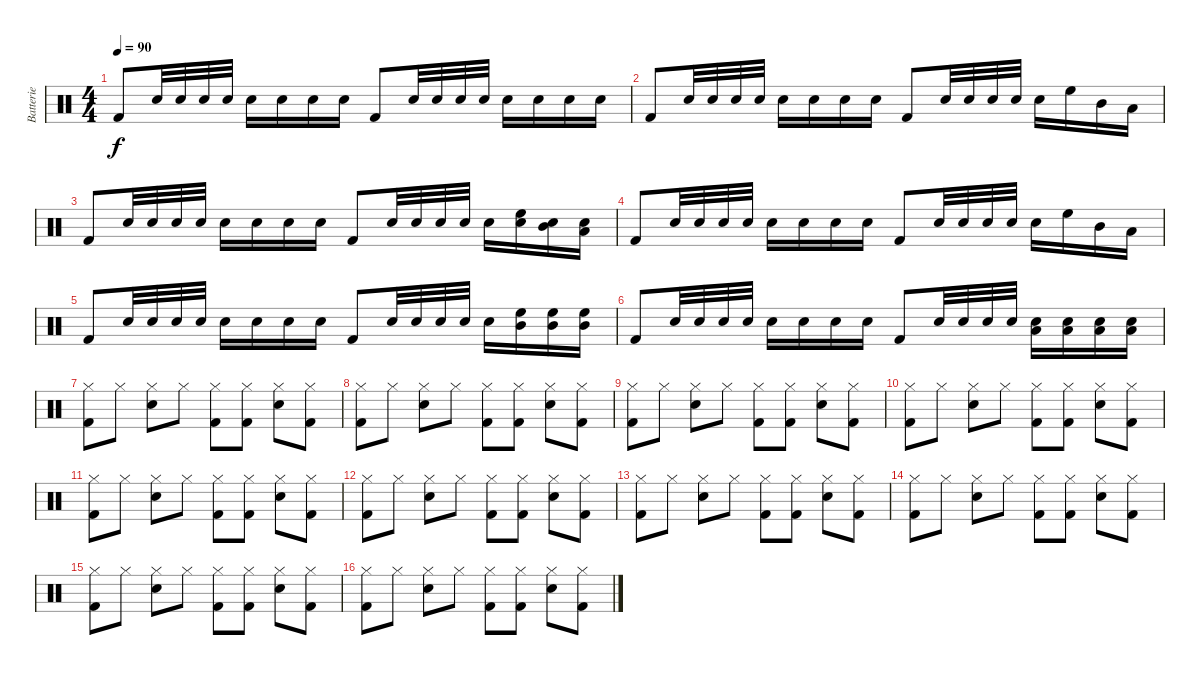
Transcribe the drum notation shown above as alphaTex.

\track ("Batterie" "Batterie") {instrument percussion}
\staff {score}
\articulation defaults
\ts (4 4)
\tempo 90
\clef neutral
\ks c "Kick (hit) 2".8{dy f} "Electric Snare (hit)".32 "Electric Snare (hit)".32 "Electric Snare (hit)".32 "Electric Snare (hit)".32 "Electric Snare (hit)".16 "Electric Snare (hit)".16 "Electric Snare (hit)".16 "Electric Snare (hit)".16 "Kick (hit) 2".8 "Electric Snare (hit)".32 "Electric Snare (hit)".32 "Electric Snare (hit)".32 "Electric Snare (hit)".32 "Electric Snare (hit)".16 "Electric Snare (hit)".16 "Electric Snare (hit)".16 "Electric Snare (hit)".16
|
"Kick (hit) 2".8 "Electric Snare (hit)".32 "Electric Snare (hit)".32 "Electric Snare (hit)".32 "Electric Snare (hit)".32 "Electric Snare (hit)".16 "Electric Snare (hit)".16 "Electric Snare (hit)".16 "Electric Snare (hit)".16 "Kick (hit) 2".8 "Electric Snare (hit)".32 "Electric Snare (hit)".32 "Electric Snare (hit)".32 "Electric Snare (hit)".32 "Electric Snare (hit)".16 "High Floor Tom (hit)".16 "Mid Tom (hit)".16 "Low Floor Tom (hit)".16 |
"Kick (hit) 2".8 "Electric Snare (hit)".32 "Electric Snare (hit)".32 "Electric Snare (hit)".32 "Electric Snare (hit)".32 "Electric Snare (hit)".16 "Electric Snare (hit)".16 "Electric Snare (hit)".16 "Electric Snare (hit)".16 "Kick (hit) 2".8 "Electric Snare (hit)".32 "Electric Snare (hit)".32 "Electric Snare (hit)".32 "Electric Snare (hit)".32 "Electric Snare (hit)".16 ("Electric Snare (hit)" "High Floor Tom (hit)").16 ("Electric Snare (hit)" "Mid Tom (hit)").16 ("Electric Snare (hit)" "Low Floor Tom (hit)").16 |
"Kick (hit) 2".8 "Electric Snare (hit)".32 "Electric Snare (hit)".32 "Electric Snare (hit)".32 "Electric Snare (hit)".32 "Electric Snare (hit)".16 "Electric Snare (hit)".16 "Electric Snare (hit)".16 "Electric Snare (hit)".16 "Kick (hit) 2".8 "Electric Snare (hit)".32 "Electric Snare (hit)".32 "Electric Snare (hit)".32 "Electric Snare (hit)".32 "Electric Snare (hit)".16 "High Floor Tom (hit)".16 "Mid Tom (hit)".16 "Low Floor Tom (hit)".16 |
"Kick (hit) 2".8 "Electric Snare (hit)".32 "Electric Snare (hit)".32 "Electric Snare (hit)".32 "Electric Snare (hit)".32 "Electric Snare (hit)".16 "Electric Snare (hit)".16 "Electric Snare (hit)".16 "Electric Snare (hit)".16 "Kick (hit) 2".8 "Electric Snare (hit)".32 "Electric Snare (hit)".32 "Electric Snare (hit)".32 "Electric Snare (hit)".32 "Electric Snare (hit)".16 ("Mid Tom (hit)" "High Floor Tom (hit)").16 ("Mid Tom (hit)" "High Floor Tom (hit)").16 ("Mid Tom (hit)" "High Floor Tom (hit)").16 |
"Kick (hit) 2".8 "Electric Snare (hit)".32 "Electric Snare (hit)".32 "Electric Snare (hit)".32 "Electric Snare (hit)".32 "Electric Snare (hit)".16 "Electric Snare (hit)".16 "Electric Snare (hit)".16 "Electric Snare (hit)".16 "Kick (hit) 2".8 "Electric Snare (hit)".32 "Electric Snare (hit)".32 "Electric Snare (hit)".32 "Electric Snare (hit)".32 ("Low Floor Tom (hit)" "Electric Snare (hit)").16 ("Low Floor Tom (hit)" "Electric Snare (hit)").16 ("Low Floor Tom (hit)" "Electric Snare (hit)").16 ("Low Floor Tom (hit)" "Electric Snare (hit)").16 |
("Hi-Hat (closed)" "Kick (hit) 2").8 "Hi-Hat (closed)".8 ("Hi-Hat (closed)" "Electric Snare (hit)").8 "Hi-Hat (closed)".8 ("Hi-Hat (closed)" "Kick (hit) 2").8 ("Hi-Hat (closed)" "Kick (hit) 2").8 ("Hi-Hat (closed)" "Electric Snare (hit)").8 ("Hi-Hat (closed)" "Kick (hit) 2").8 |
("Hi-Hat (closed)" "Kick (hit) 2").8 "Hi-Hat (closed)".8 ("Hi-Hat (closed)" "Electric Snare (hit)").8 "Hi-Hat (closed)".8 ("Hi-Hat (closed)" "Kick (hit) 2").8 ("Hi-Hat (closed)" "Kick (hit) 2").8 ("Hi-Hat (closed)" "Electric Snare (hit)").8 ("Hi-Hat (closed)" "Kick (hit) 2").8 |
("Hi-Hat (closed)" "Kick (hit) 2").8 "Hi-Hat (closed)".8 ("Hi-Hat (closed)" "Electric Snare (hit)").8 "Hi-Hat (closed)".8 ("Hi-Hat (closed)" "Kick (hit) 2").8 ("Hi-Hat (closed)" "Kick (hit) 2").8 ("Hi-Hat (closed)" "Electric Snare (hit)").8 ("Hi-Hat (closed)" "Kick (hit) 2").8 |
("Hi-Hat (closed)" "Kick (hit) 2").8 "Hi-Hat (closed)".8 ("Hi-Hat (closed)" "Electric Snare (hit)").8 "Hi-Hat (closed)".8 ("Hi-Hat (closed)" "Kick (hit) 2").8 ("Hi-Hat (closed)" "Kick (hit) 2").8 ("Hi-Hat (closed)" "Electric Snare (hit)").8 ("Hi-Hat (closed)" "Kick (hit) 2").8 |
("Hi-Hat (closed)" "Kick (hit) 2").8 "Hi-Hat (closed)".8 ("Hi-Hat (closed)" "Electric Snare (hit)").8 "Hi-Hat (closed)".8 ("Hi-Hat (closed)" "Kick (hit) 2").8 ("Hi-Hat (closed)" "Kick (hit) 2").8 ("Hi-Hat (closed)" "Electric Snare (hit)").8 ("Hi-Hat (closed)" "Kick (hit) 2").8 |
("Hi-Hat (closed)" "Kick (hit) 2").8 "Hi-Hat (closed)".8 ("Hi-Hat (closed)" "Electric Snare (hit)").8 "Hi-Hat (closed)".8 ("Hi-Hat (closed)" "Kick (hit) 2").8 ("Hi-Hat (closed)" "Kick (hit) 2").8 ("Hi-Hat (closed)" "Electric Snare (hit)").8 ("Hi-Hat (closed)" "Kick (hit) 2").8 |
("Hi-Hat (closed)" "Kick (hit) 2").8 "Hi-Hat (closed)".8 ("Hi-Hat (closed)" "Electric Snare (hit)").8 "Hi-Hat (closed)".8 ("Hi-Hat (closed)" "Kick (hit) 2").8 ("Hi-Hat (closed)" "Kick (hit) 2").8 ("Hi-Hat (closed)" "Electric Snare (hit)").8 ("Hi-Hat (closed)" "Kick (hit) 2").8 |
("Hi-Hat (closed)" "Kick (hit) 2").8 "Hi-Hat (closed)".8 ("Hi-Hat (closed)" "Electric Snare (hit)").8 "Hi-Hat (closed)".8 ("Hi-Hat (closed)" "Kick (hit) 2").8 ("Hi-Hat (closed)" "Kick (hit) 2").8 ("Hi-Hat (closed)" "Electric Snare (hit)").8 ("Hi-Hat (closed)" "Kick (hit) 2").8 |
("Hi-Hat (closed)" "Kick (hit) 2").8 "Hi-Hat (closed)".8 ("Hi-Hat (closed)" "Electric Snare (hit)").8 "Hi-Hat (closed)".8 ("Hi-Hat (closed)" "Kick (hit) 2").8 ("Hi-Hat (closed)" "Kick (hit) 2").8 ("Hi-Hat (closed)" "Electric Snare (hit)").8 ("Hi-Hat (closed)" "Kick (hit) 2").8 |
("Hi-Hat (closed)" "Kick (hit) 2").8 "Hi-Hat (closed)".8 ("Hi-Hat (closed)" "Electric Snare (hit)").8 "Hi-Hat (closed)".8 ("Hi-Hat (closed)" "Kick (hit) 2").8 ("Hi-Hat (closed)" "Kick (hit) 2").8 ("Hi-Hat (closed)" "Electric Snare (hit)").8 ("Hi-Hat (closed)" "Kick (hit) 2").8
